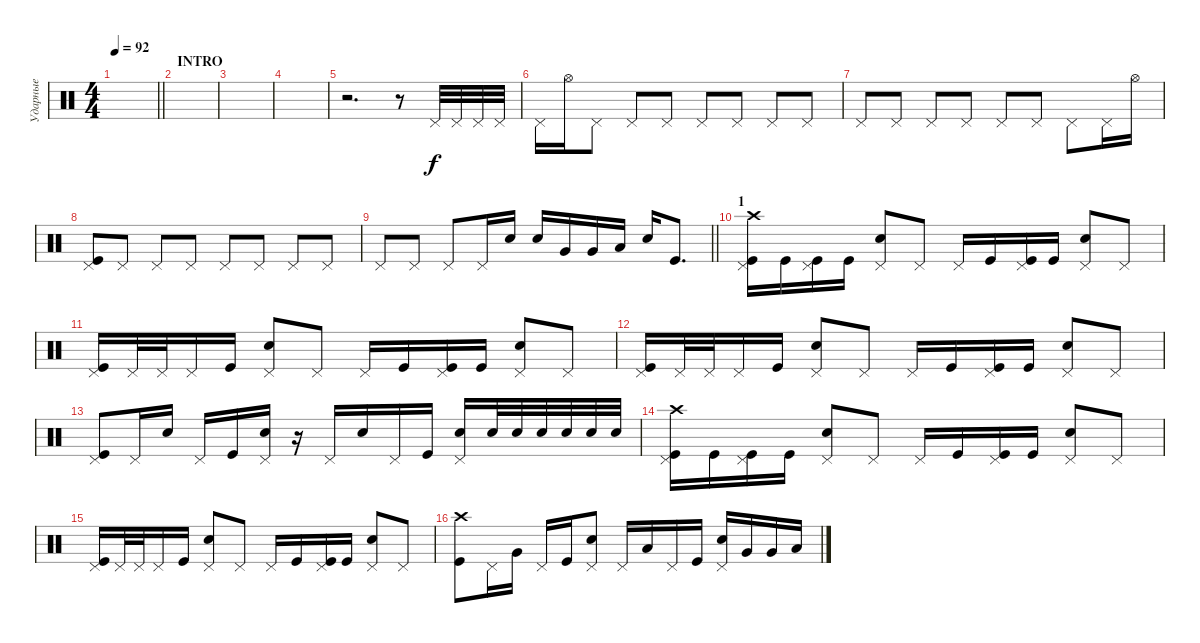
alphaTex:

\track ("Ударные" "Ударные") {instrument percussion}
\staff {score}
\articulation defaults
\ts (4 4)
\tempo 92
\clef neutral
\barLineRight lightlight
\ks c
|
\section ("" "INTRO")
|
|
|
r.2{d} r.8 "Pedal Hi-Hat (hit)".32 "Pedal Hi-Hat (hit)".32 "Pedal Hi-Hat (hit)".32 "Pedal Hi-Hat (hit)".32 |
"Pedal Hi-Hat (hit)".16 "Hi-Hat (open)".16 "Pedal Hi-Hat (hit)".8 "Pedal Hi-Hat (hit)".8 "Pedal Hi-Hat (hit)".8 "Pedal Hi-Hat (hit)".8 "Pedal Hi-Hat (hit)".8 "Pedal Hi-Hat (hit)".8 "Pedal Hi-Hat (hit)".8 |
"Pedal Hi-Hat (hit)".8 "Pedal Hi-Hat (hit)".8 "Pedal Hi-Hat (hit)".8 "Pedal Hi-Hat (hit)".8 "Pedal Hi-Hat (hit)".8 "Pedal Hi-Hat (hit)".8 "Pedal Hi-Hat (hit)".8 "Pedal Hi-Hat (hit)".16 "Hi-Hat (open)".16 |
("Pedal Hi-Hat (hit)" "Kick (hit)").8 "Pedal Hi-Hat (hit)".8 "Pedal Hi-Hat (hit)".8 "Pedal Hi-Hat (hit)".8 "Pedal Hi-Hat (hit)".8 "Pedal Hi-Hat (hit)".8 "Pedal Hi-Hat (hit)".8 "Pedal Hi-Hat (hit)".8 |
\barLineRight lightlight "Pedal Hi-Hat (hit)".8 "Pedal Hi-Hat (hit)".8 "Pedal Hi-Hat (hit)".8 "Pedal Hi-Hat (hit)".16 "Snare (hit) 2".16 "Snare (hit) 2".16 "Very Low Tom (hit)".16 "Very Low Tom (hit)".16 "Low Floor Tom (hit)".16 "Snare (hit) 2".16 "Kick (hit)".8{d}
|
\section ("" "1")
("Kick (hit)" "Pedal Hi-Hat (hit)" "Crash high (hit)").16 "Kick (hit)".16 ("Kick (hit)" "Pedal Hi-Hat (hit)").16 "Kick (hit)".16 ("Snare (hit) 2" "Pedal Hi-Hat (hit)").8 "Pedal Hi-Hat (hit)".8 "Pedal Hi-Hat (hit)".16 "Kick (hit)".16 ("Kick (hit)" "Pedal Hi-Hat (hit)").16 "Kick (hit)".16 ("Snare (hit) 2" "Pedal Hi-Hat (hit)").8 "Pedal Hi-Hat (hit)".8 |
("Kick (hit)" "Pedal Hi-Hat (hit)").16 "Pedal Hi-Hat (hit)".32 "Pedal Hi-Hat (hit)".32 "Pedal Hi-Hat (hit)".16 "Kick (hit)".16 ("Snare (hit) 2" "Pedal Hi-Hat (hit)").8 "Pedal Hi-Hat (hit)".8 "Pedal Hi-Hat (hit)".16 "Kick (hit)".16 ("Kick (hit)" "Pedal Hi-Hat (hit)").16 "Kick (hit)".16 ("Snare (hit) 2" "Pedal Hi-Hat (hit)").8 "Pedal Hi-Hat (hit)".8 |
("Kick (hit)" "Pedal Hi-Hat (hit)").16 "Pedal Hi-Hat (hit)".32 "Pedal Hi-Hat (hit)".32 "Pedal Hi-Hat (hit)".16 "Kick (hit)".16 ("Snare (hit) 2" "Pedal Hi-Hat (hit)").8 "Pedal Hi-Hat (hit)".8 "Pedal Hi-Hat (hit)".16 "Kick (hit)".16 ("Kick (hit)" "Pedal Hi-Hat (hit)").16 "Kick (hit)".16 ("Snare (hit) 2" "Pedal Hi-Hat (hit)").8 "Pedal Hi-Hat (hit)".8 |
("Kick (hit)" "Pedal Hi-Hat (hit)").8 "Pedal Hi-Hat (hit)".16 "Snare (hit) 2".16 "Pedal Hi-Hat (hit)".16 "Kick (hit)".16 ("Snare (hit) 2" "Pedal Hi-Hat (hit)").16 r.16 "Pedal Hi-Hat (hit)".16 "Snare (hit) 2".16 "Pedal Hi-Hat (hit)".16 "Kick (hit)".16 ("Snare (hit) 2" "Pedal Hi-Hat (hit)").16 "Snare (hit) 2".32 "Snare (hit) 2".32 "Snare (hit) 2".32 "Snare (hit) 2".32 "Snare (hit) 2".32 "Snare (hit) 2".32 |
("Kick (hit)" "Pedal Hi-Hat (hit)" "Crash high (hit)").16 "Kick (hit)".16 ("Kick (hit)" "Pedal Hi-Hat (hit)").16 "Kick (hit)".16 ("Snare (hit) 2" "Pedal Hi-Hat (hit)").8 "Pedal Hi-Hat (hit)".8 "Pedal Hi-Hat (hit)".16 "Kick (hit)".16 ("Kick (hit)" "Pedal Hi-Hat (hit)").16 "Kick (hit)".16 ("Snare (hit) 2" "Pedal Hi-Hat (hit)").8 "Pedal Hi-Hat (hit)".8 |
("Kick (hit)" "Pedal Hi-Hat (hit)").16 "Pedal Hi-Hat (hit)".32 "Pedal Hi-Hat (hit)".32 "Pedal Hi-Hat (hit)".16 "Kick (hit)".16 ("Snare (hit) 2" "Pedal Hi-Hat (hit)").8 "Pedal Hi-Hat (hit)".8 "Pedal Hi-Hat (hit)".16 "Kick (hit)".16 ("Kick (hit)" "Pedal Hi-Hat (hit)").16 "Kick (hit)".16 ("Snare (hit) 2" "Pedal Hi-Hat (hit)").8 "Pedal Hi-Hat (hit)".8 |
("Kick (hit)" "Crash high (hit)").8 "Pedal Hi-Hat (hit)".16 "Very Low Tom (hit)".16 "Pedal Hi-Hat (hit)".16 "Kick (hit)".16 ("Snare (hit) 2" "Pedal Hi-Hat (hit)").8 "Pedal Hi-Hat (hit)".16 "Low Floor Tom (hit)".16 "Pedal Hi-Hat (hit)".16 "Kick (hit)".16 ("Snare (hit) 2" "Pedal Hi-Hat (hit)").16 "Very Low Tom (hit)".16 "Very Low Tom (hit)".16 "Low Floor Tom (hit)".16
